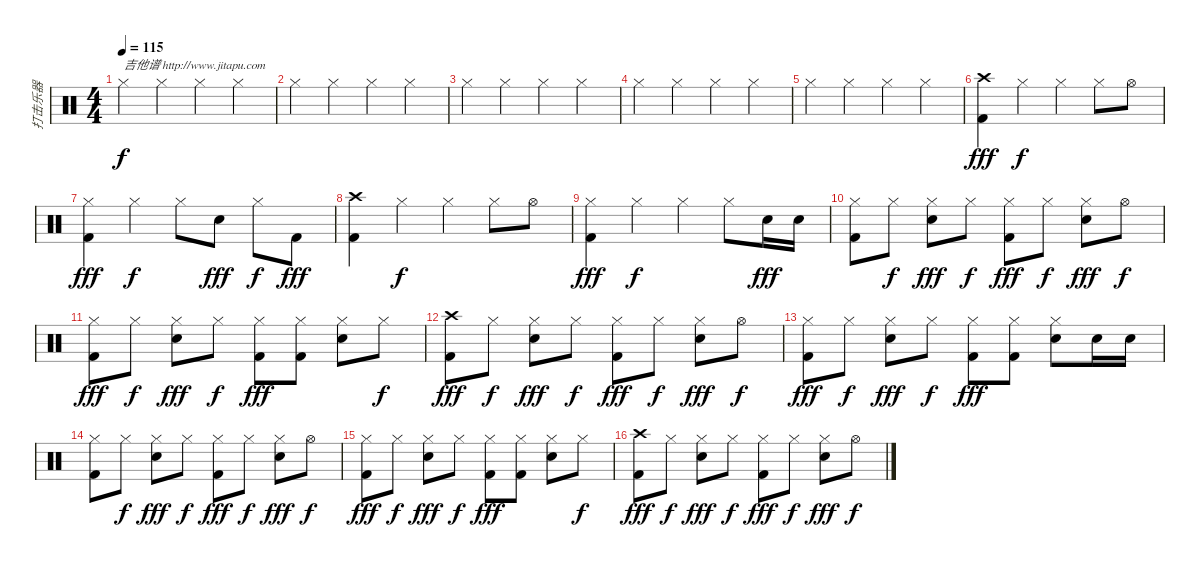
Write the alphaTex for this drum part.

\track ("打击乐器" "打击乐器") {instrument percussion}
\staff {score}
\articulation defaults
\ts (4 4)
\tempo 115
\clef neutral
\ks c "Hi-Hat (closed)".4{txt "吉他谱 http://www.jitapu.com" dy f} "Hi-Hat (closed)".4 "Hi-Hat (closed)".4 "Hi-Hat (closed)".4
|
"Hi-Hat (closed)".4 "Hi-Hat (closed)".4 "Hi-Hat (closed)".4 "Hi-Hat (closed)".4 |
"Hi-Hat (closed)".4 "Hi-Hat (closed)".4 "Hi-Hat (closed)".4 "Hi-Hat (closed)".4 |
"Hi-Hat (closed)".4 "Hi-Hat (closed)".4 "Hi-Hat (closed)".4 "Hi-Hat (closed)".4 |
"Hi-Hat (closed)".4 "Hi-Hat (closed)".4 "Hi-Hat (closed)".4 "Hi-Hat (closed)".4 |
("Crash high (hit)" "Kick (hit) 2").4{dy fff} "Hi-Hat (closed)".4{dy f} "Hi-Hat (closed)".4 "Hi-Hat (closed)".8 "Hi-Hat (open)".8 |
("Hi-Hat (closed)" "Kick (hit) 2").4{dy fff} "Hi-Hat (closed)".4{dy f} "Hi-Hat (closed)".8 "Electric Snare (hit)".8{dy fff} "Hi-Hat (closed)".8{dy f} "Kick (hit) 2".8{dy fff} |
("Crash high (hit)" "Kick (hit) 2").4 "Hi-Hat (closed)".4{dy f} "Hi-Hat (closed)".4 "Hi-Hat (closed)".8 "Hi-Hat (open)".8 |
("Hi-Hat (closed)" "Kick (hit) 2").4{dy fff} "Hi-Hat (closed)".4{dy f} "Hi-Hat (closed)".4 "Hi-Hat (closed)".8 "Electric Snare (hit)".16{dy fff} "Electric Snare (hit)".16 |
("Hi-Hat (closed)" "Kick (hit) 2").8 "Hi-Hat (closed)".8{dy f} ("Hi-Hat (closed)" "Electric Snare (hit)").8{dy fff} "Hi-Hat (closed)".8{dy f} ("Hi-Hat (closed)" "Kick (hit) 2").8{dy fff} "Hi-Hat (closed)".8{dy f} ("Hi-Hat (closed)" "Electric Snare (hit)").8{dy fff} "Hi-Hat (open)".8{dy f} |
("Hi-Hat (closed)" "Kick (hit) 2").8{dy fff} "Hi-Hat (closed)".8{dy f} ("Hi-Hat (closed)" "Electric Snare (hit)").8{dy fff} "Hi-Hat (closed)".8{dy f} ("Hi-Hat (closed)" "Kick (hit) 2").8{dy fff} ("Hi-Hat (closed)" "Kick (hit) 2").8 ("Hi-Hat (closed)" "Electric Snare (hit)").8 "Hi-Hat (closed)".8{dy f} |
("Crash high (hit)" "Kick (hit) 2").8{dy fff} "Hi-Hat (closed)".8{dy f} ("Hi-Hat (closed)" "Electric Snare (hit)").8{dy fff} "Hi-Hat (closed)".8{dy f} ("Hi-Hat (closed)" "Kick (hit) 2").8{dy fff} "Hi-Hat (closed)".8{dy f} ("Hi-Hat (closed)" "Electric Snare (hit)").8{dy fff} "Hi-Hat (open)".8{dy f} |
("Hi-Hat (closed)" "Kick (hit) 2").8{dy fff} "Hi-Hat (closed)".8{dy f} ("Hi-Hat (closed)" "Electric Snare (hit)").8{dy fff} "Hi-Hat (closed)".8{dy f} ("Hi-Hat (closed)" "Kick (hit) 2").8{dy fff} ("Hi-Hat (closed)" "Kick (hit) 2").8 ("Hi-Hat (closed)" "Electric Snare (hit)").8 "Electric Snare (hit)".16 "Electric Snare (hit)".16 |
("Hi-Hat (closed)" "Kick (hit) 2").8 "Hi-Hat (closed)".8{dy f} ("Hi-Hat (closed)" "Electric Snare (hit)").8{dy fff} "Hi-Hat (closed)".8{dy f} ("Hi-Hat (closed)" "Kick (hit) 2").8{dy fff} "Hi-Hat (closed)".8{dy f} ("Hi-Hat (closed)" "Electric Snare (hit)").8{dy fff} "Hi-Hat (open)".8{dy f} |
("Hi-Hat (closed)" "Kick (hit) 2").8{dy fff} "Hi-Hat (closed)".8{dy f} ("Hi-Hat (closed)" "Electric Snare (hit)").8{dy fff} "Hi-Hat (closed)".8{dy f} ("Hi-Hat (closed)" "Kick (hit) 2").8{dy fff} ("Hi-Hat (closed)" "Kick (hit) 2").8 ("Hi-Hat (closed)" "Electric Snare (hit)").8 "Hi-Hat (closed)".8{dy f} |
("Crash high (hit)" "Kick (hit) 2").8{dy fff} "Hi-Hat (closed)".8{dy f} ("Hi-Hat (closed)" "Electric Snare (hit)").8{dy fff} "Hi-Hat (closed)".8{dy f} ("Hi-Hat (closed)" "Kick (hit) 2").8{dy fff} "Hi-Hat (closed)".8{dy f} ("Hi-Hat (closed)" "Electric Snare (hit)").8{dy fff} "Hi-Hat (open)".8{dy f}
